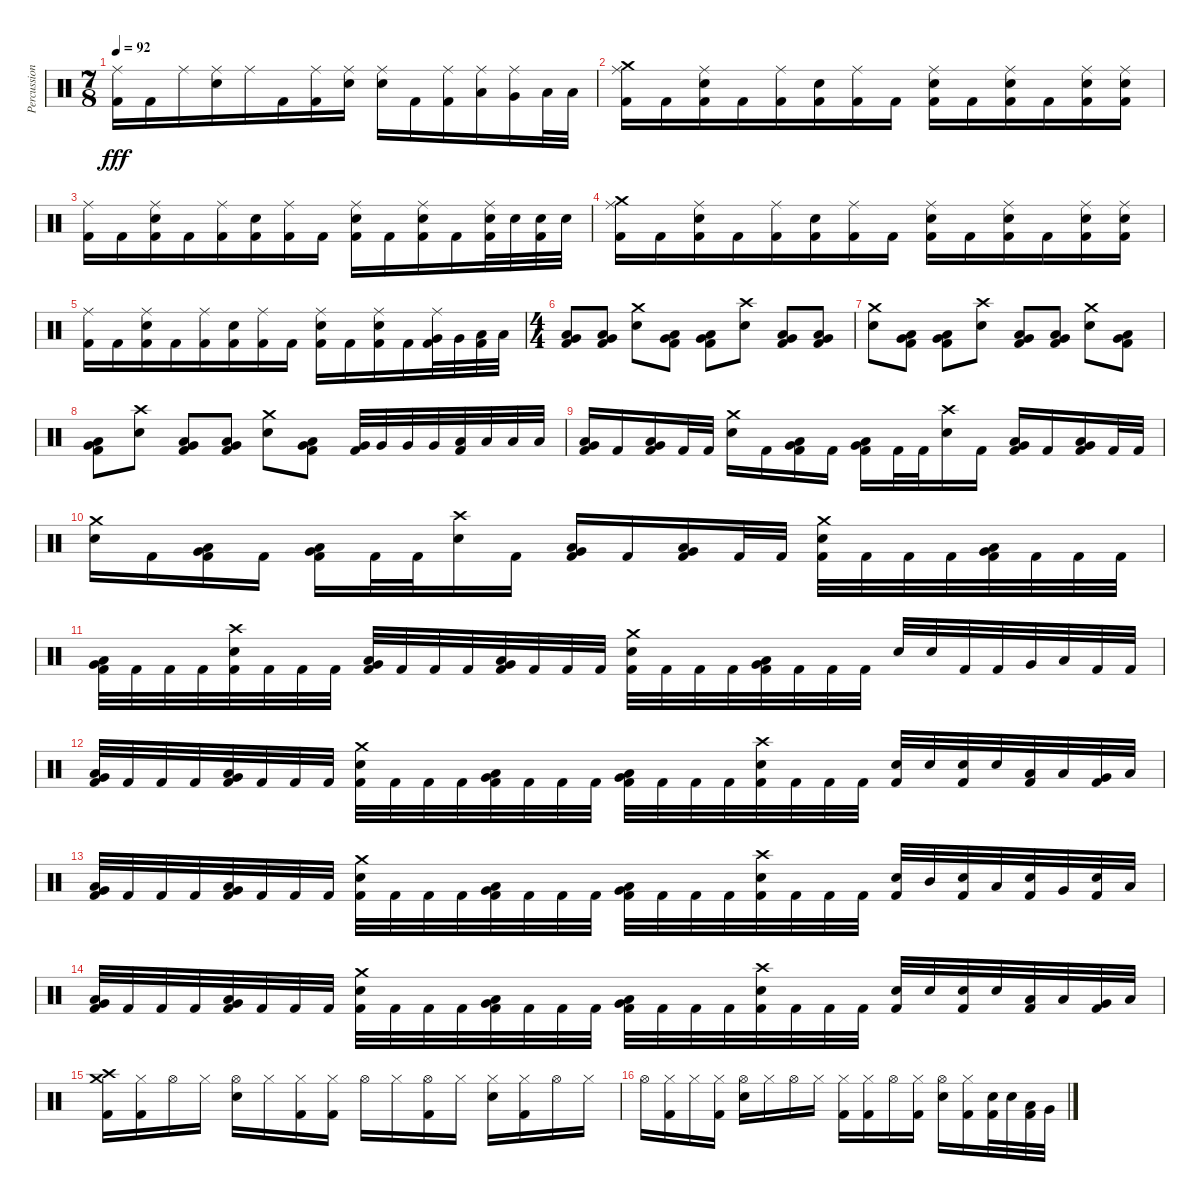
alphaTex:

\track ("Percussion" "Percussion") {instrument percussion}
\staff {score}
\articulation defaults
\ts (7 8)
\tempo 92
\clef neutral
\ks c
("Ride (middle)" "Kick (hit) 2").16{dy fff} "Kick (hit) 2".16 "Ride (middle)".16 ("Ride (middle)" "Electric Snare (hit)").16 "Ride (middle)".16 "Kick (hit) 2".16 ("Ride (middle)" "Kick (hit) 2").16 ("Ride (middle)" "Electric Snare (hit)").16 ("Ride (middle)" "Electric Snare (hit)").16 "Kick (hit) 2".16 ("Ride (middle)" "Kick (hit) 2").16 ("Ride (middle)" "Low Tom (hit)").16 ("Ride (middle)" "Very Low Tom (hit)").16 "Low Floor Tom (hit)".32 "Low Floor Tom (hit)".32 |
("Crash medium (hit)" "Ride (middle)" "Kick (hit) 2").16 "Kick (hit) 2".16 ("Ride (middle)" "Electric Snare (hit)" "Kick (hit) 2").16 "Kick (hit) 2".16 ("Ride (middle)" "Kick (hit) 2").16 ("Electric Snare (hit)" "Kick (hit) 2").16 ("Ride (middle)" "Kick (hit) 2").16 "Kick (hit) 2".16 ("Ride (middle)" "Electric Snare (hit)" "Kick (hit) 2").16 "Kick (hit) 2".16 ("Ride (middle)" "Electric Snare (hit)" "Kick (hit) 2").16 "Kick (hit) 2".16 ("Ride (middle)" "Electric Snare (hit)" "Kick (hit) 2").16 ("Ride (middle)" "Electric Snare (hit)" "Kick (hit) 2").16 |
("Ride (middle)" "Kick (hit) 2").16 "Kick (hit) 2".16 ("Ride (middle)" "Electric Snare (hit)" "Kick (hit) 2").16 "Kick (hit) 2".16 ("Ride (middle)" "Kick (hit) 2").16 ("Electric Snare (hit)" "Kick (hit) 2").16 ("Ride (middle)" "Kick (hit) 2").16 "Kick (hit) 2".16 ("Ride (middle)" "Electric Snare (hit)" "Kick (hit) 2").16 "Kick (hit) 2".16 ("Ride (middle)" "Electric Snare (hit)" "Kick (hit) 2").16 "Kick (hit) 2".16 ("Ride (middle)" "Electric Snare (hit)" "Kick (hit) 2").32 "Electric Snare (hit)".32 ("Electric Snare (hit)" "Kick (hit) 2").32 "Electric Snare (hit)".32 |
("Crash medium (hit)" "Ride (middle)" "Kick (hit) 2").16 "Kick (hit) 2".16 ("Ride (middle)" "Electric Snare (hit)" "Kick (hit) 2").16 "Kick (hit) 2".16 ("Ride (middle)" "Kick (hit) 2").16 ("Electric Snare (hit)" "Kick (hit) 2").16 ("Ride (middle)" "Kick (hit) 2").16 "Kick (hit) 2".16 ("Ride (middle)" "Electric Snare (hit)" "Kick (hit) 2").16 "Kick (hit) 2".16 ("Ride (middle)" "Electric Snare (hit)" "Kick (hit) 2").16 "Kick (hit) 2".16 ("Ride (middle)" "Electric Snare (hit)" "Kick (hit) 2").16 ("Ride (middle)" "Electric Snare (hit)" "Kick (hit) 2").16 |
("Ride (middle)" "Kick (hit) 2").16 "Kick (hit) 2".16 ("Ride (middle)" "Electric Snare (hit)" "Kick (hit) 2").16 "Kick (hit) 2".16 ("Ride (middle)" "Kick (hit) 2").16 ("Electric Snare (hit)" "Kick (hit) 2").16 ("Ride (middle)" "Kick (hit) 2").16 "Kick (hit) 2".16 ("Ride (middle)" "Electric Snare (hit)" "Kick (hit) 2").16 "Kick (hit) 2".16 ("Ride (middle)" "Electric Snare (hit)" "Kick (hit) 2").16 "Kick (hit) 2".16 ("Ride (middle)" "Very Low Tom (hit)" "Kick (hit) 2").32 "Very Low Tom (hit)".32 ("Low Floor Tom (hit)" "Kick (hit) 2").32 "Low Floor Tom (hit)".32 |
\ts (4 4)
("Very Low Tom (hit)" "Low Floor Tom (hit)" "Kick (hit) 2").8 ("Very Low Tom (hit)" "Low Floor Tom (hit)" "Kick (hit) 2").8 ("Crash medium (hit)" "Electric Snare (hit)").8 ("Very Low Tom (hit)" "Low Floor Tom (hit)" "Kick (hit) 2").8 ("Very Low Tom (hit)" "Low Floor Tom (hit)" "Kick (hit) 2").8 ("Crash high (hit)" "Electric Snare (hit)").8 ("Very Low Tom (hit)" "Low Floor Tom (hit)" "Kick (hit) 2").8 ("Very Low Tom (hit)" "Low Floor Tom (hit)" "Kick (hit) 2").8 |
("Crash medium (hit)" "Electric Snare (hit)").8 ("Very Low Tom (hit)" "Low Floor Tom (hit)" "Kick (hit) 2").8 ("Very Low Tom (hit)" "Low Floor Tom (hit)" "Kick (hit) 2").8 ("Crash high (hit)" "Electric Snare (hit)").8 ("Very Low Tom (hit)" "Low Floor Tom (hit)" "Kick (hit) 2").8 ("Very Low Tom (hit)" "Low Floor Tom (hit)" "Kick (hit) 2").8 ("Crash medium (hit)" "Electric Snare (hit)").8 ("Low Floor Tom (hit)" "Very Low Tom (hit)" "Kick (hit) 2").8 |
("Low Floor Tom (hit)" "Very Low Tom (hit)" "Kick (hit) 2").8 ("Crash high (hit)" "Electric Snare (hit)").8 ("Very Low Tom (hit)" "Low Floor Tom (hit)" "Kick (hit) 2").8 ("Very Low Tom (hit)" "Low Floor Tom (hit)" "Kick (hit) 2").8 ("Crash medium (hit)" "Electric Snare (hit)").8 ("Very Low Tom (hit)" "Low Floor Tom (hit)" "Kick (hit) 2").8 ("Very Low Tom (hit)" "Kick (hit) 2").32 "Very Low Tom (hit)".32 "Very Low Tom (hit)".32 "Very Low Tom (hit)".32 ("Low Floor Tom (hit)" "Kick (hit) 2").32 "Low Floor Tom (hit)".32 "Low Floor Tom (hit)".32 "Low Floor Tom (hit)".32 |
("Very Low Tom (hit)" "Low Floor Tom (hit)" "Kick (hit) 2").16 "Kick (hit) 2".16 ("Very Low Tom (hit)" "Low Floor Tom (hit)" "Kick (hit) 2").16 "Kick (hit) 2".32 "Kick (hit) 2".32 ("Crash medium (hit)" "Electric Snare (hit)").16 "Kick (hit) 2".16 ("Very Low Tom (hit)" "Low Floor Tom (hit)" "Kick (hit) 2").16 "Kick (hit) 2".16 ("Very Low Tom (hit)" "Low Floor Tom (hit)" "Kick (hit) 2").16 "Kick (hit) 2".32 "Kick (hit) 2".32 ("Crash high (hit)" "Electric Snare (hit)").16 "Kick (hit) 2".16 ("Very Low Tom (hit)" "Low Floor Tom (hit)" "Kick (hit) 2").16 "Kick (hit) 2".16 ("Very Low Tom (hit)" "Low Floor Tom (hit)" "Kick (hit) 2").16 "Kick (hit) 2".32 "Kick (hit) 2".32 |
("Crash medium (hit)" "Electric Snare (hit)").16 "Kick (hit) 2".16 ("Very Low Tom (hit)" "Low Floor Tom (hit)" "Kick (hit) 2").16 "Kick (hit) 2".16 ("Very Low Tom (hit)" "Low Floor Tom (hit)" "Kick (hit) 2").16 "Kick (hit) 2".32 "Kick (hit) 2".32 ("Crash high (hit)" "Electric Snare (hit)").16 "Kick (hit) 2".16 ("Very Low Tom (hit)" "Low Floor Tom (hit)" "Kick (hit) 2").16 "Kick (hit) 2".16 ("Very Low Tom (hit)" "Low Floor Tom (hit)" "Kick (hit) 2").16 "Kick (hit) 2".32 "Kick (hit) 2".32 ("Crash medium (hit)" "Electric Snare (hit)" "Kick (hit) 2").32 "Kick (hit) 2".32 "Kick (hit) 2".32 "Kick (hit) 2".32 ("Very Low Tom (hit)" "Low Floor Tom (hit)" "Kick (hit) 2").32 "Kick (hit) 2".32 "Kick (hit) 2".32 "Kick (hit) 2".32 |
("Very Low Tom (hit)" "Low Floor Tom (hit)" "Kick (hit) 2").32 "Kick (hit) 2".32 "Kick (hit) 2".32 "Kick (hit) 2".32 ("Crash high (hit)" "Electric Snare (hit)" "Kick (hit) 2").32 "Kick (hit) 2".32 "Kick (hit) 2".32 "Kick (hit) 2".32 ("Very Low Tom (hit)" "Low Floor Tom (hit)" "Kick (hit) 2").32 "Kick (hit) 2".32 "Kick (hit) 2".32 "Kick (hit) 2".32 ("Low Floor Tom (hit)" "Very Low Tom (hit)" "Kick (hit) 2").32 "Kick (hit) 2".32 "Kick (hit) 2".32 "Kick (hit) 2".32 ("Crash medium (hit)" "Electric Snare (hit)" "Kick (hit) 2").32 "Kick (hit) 2".32 "Kick (hit) 2".32 "Kick (hit) 2".32 ("Very Low Tom (hit)" "Low Floor Tom (hit)" "Kick (hit) 2").32 "Kick (hit) 2".32 "Kick (hit) 2".32 "Kick (hit) 2".32 "Electric Snare (hit)".32 "Electric Snare (hit)".32 "Kick (hit) 2".32 "Kick (hit) 2".32 "Very Low Tom (hit)".32 "Low Tom (hit)".32 "Kick (hit) 2".32 "Kick (hit) 2".32 |
("Very Low Tom (hit)" "Low Floor Tom (hit)" "Kick (hit) 2").32 "Kick (hit) 2".32 "Kick (hit) 2".32 "Kick (hit) 2".32 ("Very Low Tom (hit)" "Low Floor Tom (hit)" "Kick (hit) 2").32 "Kick (hit) 2".32 "Kick (hit) 2".32 "Kick (hit) 2".32 ("Crash medium (hit)" "Electric Snare (hit)" "Kick (hit) 2").32 "Kick (hit) 2".32 "Kick (hit) 2".32 "Kick (hit) 2".32 ("Very Low Tom (hit)" "Low Floor Tom (hit)" "Kick (hit) 2").32 "Kick (hit) 2".32 "Kick (hit) 2".32 "Kick (hit) 2".32 ("Very Low Tom (hit)" "Low Floor Tom (hit)" "Kick (hit) 2").32 "Kick (hit) 2".32 "Kick (hit) 2".32 "Kick (hit) 2".32 ("Crash high (hit)" "Electric Snare (hit)" "Kick (hit) 2").32 "Kick (hit) 2".32 "Kick (hit) 2".32 "Kick (hit) 2".32 ("Electric Snare (hit)" "Kick (hit) 2").32 "Electric Snare (hit)".32 ("Electric Snare (hit)" "Kick (hit) 2").32 "Electric Snare (hit)".32 ("Low Tom (hit)" "Kick (hit) 2").32 "Low Tom (hit)".32 ("Very Low Tom (hit)" "Kick (hit) 2").32 "Low Floor Tom (hit)".32 |
("Very Low Tom (hit)" "Low Floor Tom (hit)" "Kick (hit) 2").32 "Kick (hit) 2".32 "Kick (hit) 2".32 "Kick (hit) 2".32 ("Very Low Tom (hit)" "Low Floor Tom (hit)" "Kick (hit) 2").32 "Kick (hit) 2".32 "Kick (hit) 2".32 "Kick (hit) 2".32 ("Crash medium (hit)" "Electric Snare (hit)" "Kick (hit) 2").32 "Kick (hit) 2".32 "Kick (hit) 2".32 "Kick (hit) 2".32 ("Very Low Tom (hit)" "Low Floor Tom (hit)" "Kick (hit) 2").32 "Kick (hit) 2".32 "Kick (hit) 2".32 "Kick (hit) 2".32 ("Very Low Tom (hit)" "Low Floor Tom (hit)" "Kick (hit) 2").32 "Kick (hit) 2".32 "Kick (hit) 2".32 "Kick (hit) 2".32 ("Crash high (hit)" "Electric Snare (hit)" "Kick (hit) 2").32 "Kick (hit) 2".32 "Kick (hit) 2".32 "Kick (hit) 2".32 ("Electric Snare (hit)" "Kick (hit) 2").32 "Mid Tom (hit)".32 ("Electric Snare (hit)" "Kick (hit) 2").32 "Low Tom (hit)".32 ("Electric Snare (hit)" "Kick (hit) 2").32 "Very Low Tom (hit)".32 ("Electric Snare (hit)" "Kick (hit) 2").32 "Low Floor Tom (hit)".32 |
("Very Low Tom (hit)" "Low Floor Tom (hit)" "Kick (hit) 2").32 "Kick (hit) 2".32 "Kick (hit) 2".32 "Kick (hit) 2".32 ("Very Low Tom (hit)" "Low Floor Tom (hit)" "Kick (hit) 2").32 "Kick (hit) 2".32 "Kick (hit) 2".32 "Kick (hit) 2".32 ("Crash medium (hit)" "Electric Snare (hit)" "Kick (hit) 2").32 "Kick (hit) 2".32 "Kick (hit) 2".32 "Kick (hit) 2".32 ("Very Low Tom (hit)" "Low Floor Tom (hit)" "Kick (hit) 2").32 "Kick (hit) 2".32 "Kick (hit) 2".32 "Kick (hit) 2".32 ("Very Low Tom (hit)" "Low Floor Tom (hit)" "Kick (hit) 2").32 "Kick (hit) 2".32 "Kick (hit) 2".32 "Kick (hit) 2".32 ("Crash high (hit)" "Electric Snare (hit)" "Kick (hit) 2").32 "Kick (hit) 2".32 "Kick (hit) 2".32 "Kick (hit) 2".32 ("Electric Snare (hit)" "Kick (hit) 2").32 "Electric Snare (hit)".32 ("Electric Snare (hit)" "Kick (hit) 2").32 "Electric Snare (hit)".32 ("Low Tom (hit)" "Kick (hit) 2").32 "Low Tom (hit)".32 ("Very Low Tom (hit)" "Kick (hit) 2").32 "Low Floor Tom (hit)".32 |
("Crash high (hit)" "Crash medium (hit)" "Kick (hit) 2").16 ("Hi-Hat (closed)" "Kick (hit) 2").16 "Hi-Hat (open)".16 "Hi-Hat (closed)".16 ("Hi-Hat (open)" "Electric Snare (hit)").16 "Hi-Hat (closed)".16 ("Hi-Hat (closed)" "Kick (hit) 2").16 ("Hi-Hat (closed)" "Kick (hit) 2").16 "Hi-Hat (open)".16 "Hi-Hat (closed)".16 ("Hi-Hat (open)" "Kick (hit) 2").16 "Hi-Hat (closed)".16 ("Hi-Hat (closed)" "Electric Snare (hit)").16 ("Hi-Hat (closed)" "Kick (hit) 2").16 "Hi-Hat (open)".16 "Hi-Hat (closed)".16 |
"Hi-Hat (open)".16 ("Hi-Hat (closed)" "Kick (hit) 2").16 "Hi-Hat (closed)".16 ("Hi-Hat (closed)" "Kick (hit) 2").16 ("Hi-Hat (open)" "Electric Snare (hit)").16 "Hi-Hat (closed)".16 "Hi-Hat (open)".16 "Hi-Hat (closed)".16 ("Hi-Hat (closed)" "Kick (hit) 2").16 ("Hi-Hat (closed)" "Kick (hit) 2").16 "Hi-Hat (open)".16 ("Hi-Hat (closed)" "Kick (hit) 2").16 ("Hi-Hat (open)" "Electric Snare (hit)").16 ("Hi-Hat (closed)" "Kick (hit) 2").16 ("Electric Snare (hit)" "Kick (hit) 2").32 "Electric Snare (hit)".32 ("Low Tom (hit)" "Kick (hit) 2").32 "Very Low Tom (hit)".32
